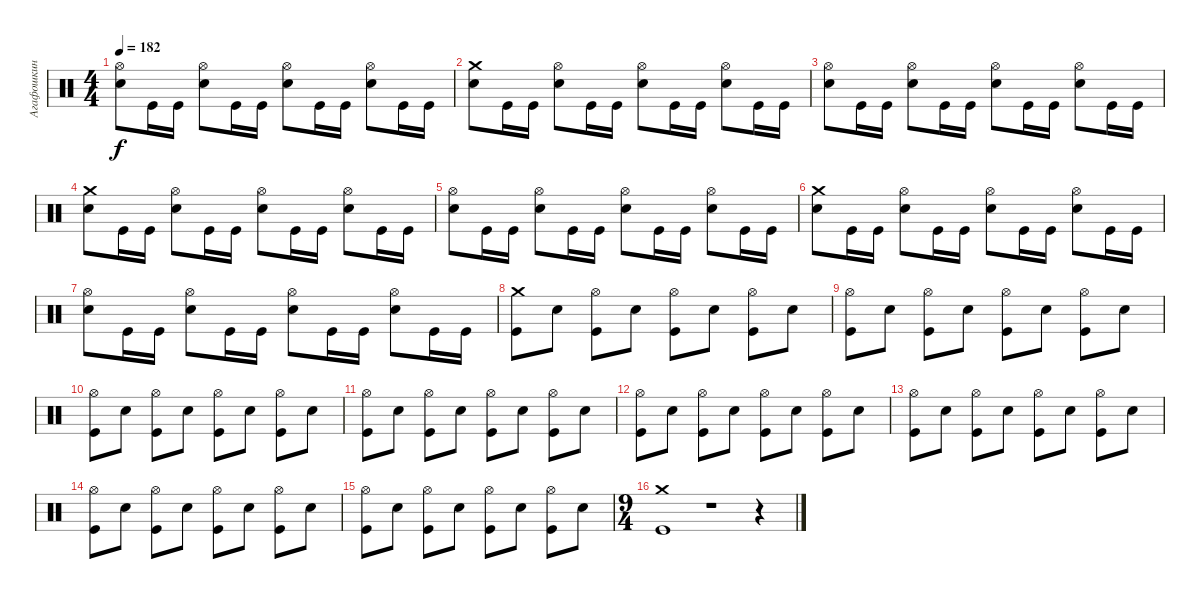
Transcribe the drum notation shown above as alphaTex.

\track ("Агафошкин" "Агафошкин") {instrument percussion}
\staff {score}
\articulation defaults
\ts (4 4)
\tempo 182
\clef neutral
\ks c
("Hi-Hat (open)" "Snare (hit) 2").8{dy f} "Kick (hit)".16 "Kick (hit)".16 ("Hi-Hat (open)" "Snare (hit) 2").8 "Kick (hit)".16 "Kick (hit)".16 ("Hi-Hat (open)" "Snare (hit) 2").8 "Kick (hit)".16 "Kick (hit)".16 ("Hi-Hat (open)" "Snare (hit) 2").8 "Kick (hit)".16 "Kick (hit)".16 |
("Crash medium (hit)" "Snare (hit) 2").8 "Kick (hit)".16 "Kick (hit)".16 ("Hi-Hat (open)" "Snare (hit) 2").8 "Kick (hit)".16 "Kick (hit)".16 ("Hi-Hat (open)" "Snare (hit) 2").8 "Kick (hit)".16 "Kick (hit)".16 ("Hi-Hat (open)" "Snare (hit) 2").8 "Kick (hit)".16 "Kick (hit)".16 |
("Hi-Hat (open)" "Snare (hit) 2").8 "Kick (hit)".16 "Kick (hit)".16 ("Hi-Hat (open)" "Snare (hit) 2").8 "Kick (hit)".16 "Kick (hit)".16 ("Hi-Hat (open)" "Snare (hit) 2").8 "Kick (hit)".16 "Kick (hit)".16 ("Hi-Hat (open)" "Snare (hit) 2").8 "Kick (hit)".16 "Kick (hit)".16 |
("Crash medium (hit)" "Snare (hit) 2").8 "Kick (hit)".16 "Kick (hit)".16 ("Hi-Hat (open)" "Snare (hit) 2").8 "Kick (hit)".16 "Kick (hit)".16 ("Hi-Hat (open)" "Snare (hit) 2").8 "Kick (hit)".16 "Kick (hit)".16 ("Hi-Hat (open)" "Snare (hit) 2").8 "Kick (hit)".16 "Kick (hit)".16 |
("Hi-Hat (open)" "Snare (hit) 2").8 "Kick (hit)".16 "Kick (hit)".16 ("Hi-Hat (open)" "Snare (hit) 2").8 "Kick (hit)".16 "Kick (hit)".16 ("Hi-Hat (open)" "Snare (hit) 2").8 "Kick (hit)".16 "Kick (hit)".16 ("Hi-Hat (open)" "Snare (hit) 2").8 "Kick (hit)".16 "Kick (hit)".16 |
("Crash medium (hit)" "Snare (hit) 2").8 "Kick (hit)".16 "Kick (hit)".16 ("Hi-Hat (open)" "Snare (hit) 2").8 "Kick (hit)".16 "Kick (hit)".16 ("Hi-Hat (open)" "Snare (hit) 2").8 "Kick (hit)".16 "Kick (hit)".16 ("Hi-Hat (open)" "Snare (hit) 2").8 "Kick (hit)".16 "Kick (hit)".16 |
("Hi-Hat (open)" "Snare (hit) 2").8 "Kick (hit)".16 "Kick (hit)".16 ("Hi-Hat (open)" "Snare (hit) 2").8 "Kick (hit)".16 "Kick (hit)".16 ("Hi-Hat (open)" "Snare (hit) 2").8 "Kick (hit)".16 "Kick (hit)".16 ("Hi-Hat (open)" "Snare (hit) 2").8 "Kick (hit)".16 "Kick (hit)".16 |
("Kick (hit)" "Crash medium (hit)").8 "Snare (hit) 2".8 ("Hi-Hat (open)" "Kick (hit)").8 "Snare (hit) 2".8 ("Hi-Hat (open)" "Kick (hit)").8 "Snare (hit) 2".8 ("Hi-Hat (open)" "Kick (hit)").8 "Snare (hit) 2".8 |
("Kick (hit)" "Hi-Hat (open)").8 "Snare (hit) 2".8 ("Hi-Hat (open)" "Kick (hit)").8 "Snare (hit) 2".8 ("Hi-Hat (open)" "Kick (hit)").8 "Snare (hit) 2".8 ("Hi-Hat (open)" "Kick (hit)").8 "Snare (hit) 2".8 |
("Kick (hit)" "Hi-Hat (open)").8 "Snare (hit) 2".8 ("Hi-Hat (open)" "Kick (hit)").8 "Snare (hit) 2".8 ("Hi-Hat (open)" "Kick (hit)").8 "Snare (hit) 2".8 ("Hi-Hat (open)" "Kick (hit)").8 "Snare (hit) 2".8 |
("Kick (hit)" "Hi-Hat (open)").8 "Snare (hit) 2".8 ("Hi-Hat (open)" "Kick (hit)").8 "Snare (hit) 2".8 ("Hi-Hat (open)" "Kick (hit)").8 "Snare (hit) 2".8 ("Hi-Hat (open)" "Kick (hit)").8 "Snare (hit) 2".8 |
("Kick (hit)" "Hi-Hat (open)").8 "Snare (hit) 2".8 ("Hi-Hat (open)" "Kick (hit)").8 "Snare (hit) 2".8 ("Hi-Hat (open)" "Kick (hit)").8 "Snare (hit) 2".8 ("Hi-Hat (open)" "Kick (hit)").8 "Snare (hit) 2".8 |
("Kick (hit)" "Hi-Hat (open)").8 "Snare (hit) 2".8 ("Hi-Hat (open)" "Kick (hit)").8 "Snare (hit) 2".8 ("Hi-Hat (open)" "Kick (hit)").8 "Snare (hit) 2".8 ("Hi-Hat (open)" "Kick (hit)").8 "Snare (hit) 2".8 |
("Kick (hit)" "Hi-Hat (open)").8 "Snare (hit) 2".8 ("Hi-Hat (open)" "Kick (hit)").8 "Snare (hit) 2".8 ("Hi-Hat (open)" "Kick (hit)").8 "Snare (hit) 2".8 ("Hi-Hat (open)" "Kick (hit)").8 "Snare (hit) 2".8 |
("Kick (hit)" "Hi-Hat (open)").8 "Snare (hit) 2".8 ("Hi-Hat (open)" "Kick (hit)").8 "Snare (hit) 2".8 ("Hi-Hat (open)" "Kick (hit)").8 "Snare (hit) 2".8 ("Hi-Hat (open)" "Kick (hit)").8 "Snare (hit) 2".8 |
\ts (9 4)
("Crash medium (hit)" "Kick (hit)").1 r.1 r.4
